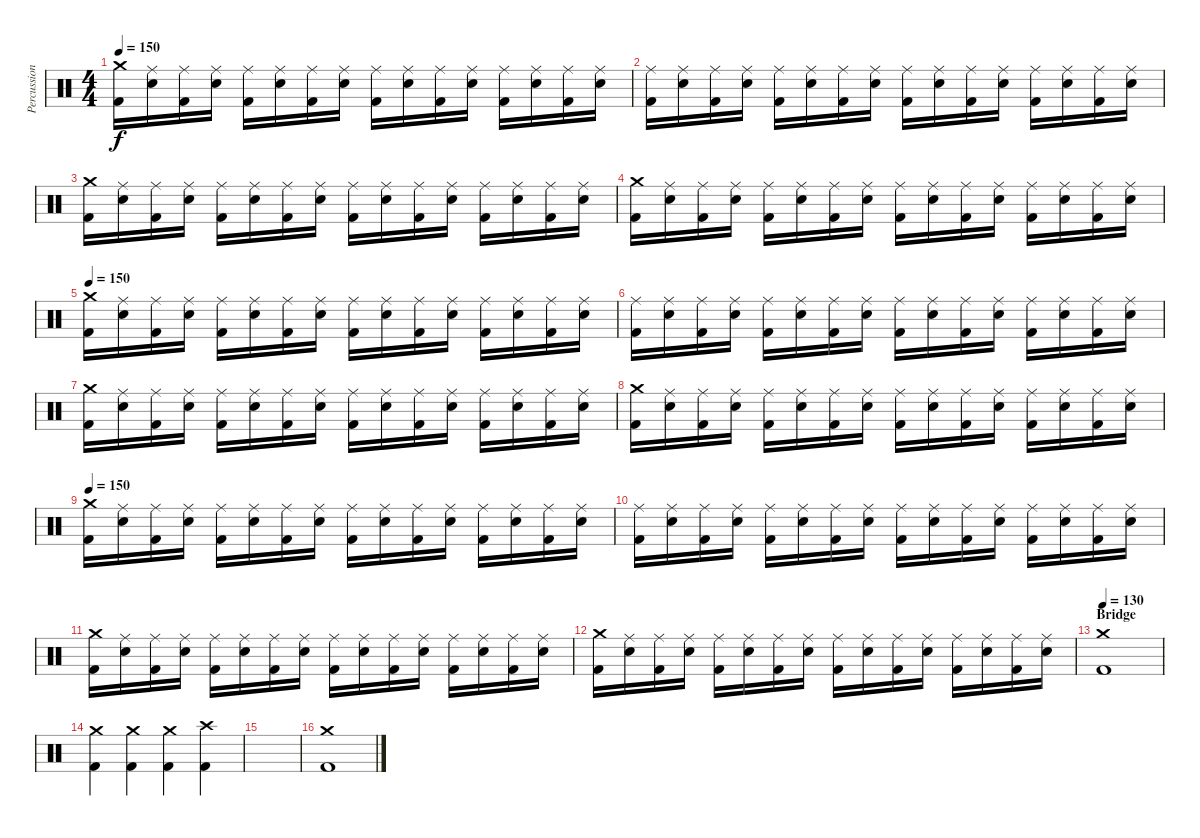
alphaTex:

\track ("Percussion" "Percussion") {instrument percussion}
\staff {score}
\articulation defaults
\ts (4 4)
\tempo 150
\clef neutral
\ks c
("Crash medium (hit)" "Kick (hit) 2").16{dy f} ("Ride (middle)" "Electric Snare (hit)").16 ("Ride (middle)" "Kick (hit) 2").16 ("Ride (middle)" "Electric Snare (hit)").16 ("Ride (middle)" "Kick (hit) 2").16 ("Ride (middle)" "Electric Snare (hit)").16 ("Ride (middle)" "Kick (hit) 2").16 ("Ride (middle)" "Electric Snare (hit)").16 ("Ride (middle)" "Kick (hit) 2").16 ("Ride (middle)" "Electric Snare (hit)").16 ("Ride (middle)" "Kick (hit) 2").16 ("Ride (middle)" "Electric Snare (hit)").16 ("Ride (middle)" "Kick (hit) 2").16 ("Ride (middle)" "Electric Snare (hit)").16 ("Ride (middle)" "Kick (hit) 2").16 ("Ride (middle)" "Electric Snare (hit)").16 |
("Ride (middle)" "Kick (hit) 2").16 ("Ride (middle)" "Electric Snare (hit)").16 ("Ride (middle)" "Kick (hit) 2").16 ("Ride (middle)" "Electric Snare (hit)").16 ("Ride (middle)" "Kick (hit) 2").16 ("Ride (middle)" "Electric Snare (hit)").16 ("Ride (middle)" "Kick (hit) 2").16 ("Ride (middle)" "Electric Snare (hit)").16 ("Ride (middle)" "Kick (hit) 2").16 ("Ride (middle)" "Electric Snare (hit)").16 ("Ride (middle)" "Kick (hit) 2").16 ("Ride (middle)" "Electric Snare (hit)").16 ("Ride (middle)" "Kick (hit) 2").16 ("Ride (middle)" "Electric Snare (hit)").16 ("Ride (middle)" "Kick (hit) 2").16 ("Ride (middle)" "Electric Snare (hit)").16 |
("Crash medium (hit)" "Kick (hit) 2").16 ("Ride (middle)" "Electric Snare (hit)").16 ("Ride (middle)" "Kick (hit) 2").16 ("Ride (middle)" "Electric Snare (hit)").16 ("Ride (middle)" "Kick (hit) 2").16 ("Ride (middle)" "Electric Snare (hit)").16 ("Ride (middle)" "Kick (hit) 2").16 ("Ride (middle)" "Electric Snare (hit)").16 ("Ride (middle)" "Kick (hit) 2").16 ("Ride (middle)" "Electric Snare (hit)").16 ("Ride (middle)" "Kick (hit) 2").16 ("Ride (middle)" "Electric Snare (hit)").16 ("Ride (middle)" "Kick (hit) 2").16 ("Ride (middle)" "Electric Snare (hit)").16 ("Ride (middle)" "Kick (hit) 2").16 ("Ride (middle)" "Electric Snare (hit)").16 |
("Crash medium (hit)" "Kick (hit) 2").16 ("Ride (middle)" "Electric Snare (hit)").16 ("Ride (middle)" "Kick (hit) 2").16 ("Ride (middle)" "Electric Snare (hit)").16 ("Ride (middle)" "Kick (hit) 2").16 ("Ride (middle)" "Electric Snare (hit)").16 ("Ride (middle)" "Kick (hit) 2").16 ("Ride (middle)" "Electric Snare (hit)").16 ("Ride (middle)" "Kick (hit) 2").16 ("Ride (middle)" "Electric Snare (hit)").16 ("Ride (middle)" "Kick (hit) 2").16 ("Ride (middle)" "Electric Snare (hit)").16 ("Ride (middle)" "Kick (hit) 2").16 ("Ride (middle)" "Electric Snare (hit)").16 ("Ride (middle)" "Kick (hit) 2").16 ("Ride (middle)" "Electric Snare (hit)").16 |
\tempo 150
("Crash medium (hit)" "Kick (hit) 2").16 ("Ride (middle)" "Electric Snare (hit)").16 ("Ride (middle)" "Kick (hit) 2").16 ("Ride (middle)" "Electric Snare (hit)").16 ("Ride (middle)" "Kick (hit) 2").16 ("Ride (middle)" "Electric Snare (hit)").16 ("Ride (middle)" "Kick (hit) 2").16 ("Ride (middle)" "Electric Snare (hit)").16 ("Ride (middle)" "Kick (hit) 2").16 ("Ride (middle)" "Electric Snare (hit)").16 ("Ride (middle)" "Kick (hit) 2").16 ("Ride (middle)" "Electric Snare (hit)").16 ("Ride (middle)" "Kick (hit) 2").16 ("Ride (middle)" "Electric Snare (hit)").16 ("Ride (middle)" "Kick (hit) 2").16 ("Ride (middle)" "Electric Snare (hit)").16 |
("Ride (middle)" "Kick (hit) 2").16 ("Ride (middle)" "Electric Snare (hit)").16 ("Ride (middle)" "Kick (hit) 2").16 ("Ride (middle)" "Electric Snare (hit)").16 ("Ride (middle)" "Kick (hit) 2").16 ("Ride (middle)" "Electric Snare (hit)").16 ("Ride (middle)" "Kick (hit) 2").16 ("Ride (middle)" "Electric Snare (hit)").16 ("Ride (middle)" "Kick (hit) 2").16 ("Ride (middle)" "Electric Snare (hit)").16 ("Ride (middle)" "Kick (hit) 2").16 ("Ride (middle)" "Electric Snare (hit)").16 ("Ride (middle)" "Kick (hit) 2").16 ("Ride (middle)" "Electric Snare (hit)").16 ("Ride (middle)" "Kick (hit) 2").16 ("Ride (middle)" "Electric Snare (hit)").16 |
("Crash medium (hit)" "Kick (hit) 2").16 ("Ride (middle)" "Electric Snare (hit)").16 ("Ride (middle)" "Kick (hit) 2").16 ("Ride (middle)" "Electric Snare (hit)").16 ("Ride (middle)" "Kick (hit) 2").16 ("Ride (middle)" "Electric Snare (hit)").16 ("Ride (middle)" "Kick (hit) 2").16 ("Ride (middle)" "Electric Snare (hit)").16 ("Ride (middle)" "Kick (hit) 2").16 ("Ride (middle)" "Electric Snare (hit)").16 ("Ride (middle)" "Kick (hit) 2").16 ("Ride (middle)" "Electric Snare (hit)").16 ("Ride (middle)" "Kick (hit) 2").16 ("Ride (middle)" "Electric Snare (hit)").16 ("Ride (middle)" "Kick (hit) 2").16 ("Ride (middle)" "Electric Snare (hit)").16 |
("Crash medium (hit)" "Kick (hit) 2").16 ("Ride (middle)" "Electric Snare (hit)").16 ("Ride (middle)" "Kick (hit) 2").16 ("Ride (middle)" "Electric Snare (hit)").16 ("Ride (middle)" "Kick (hit) 2").16 ("Ride (middle)" "Electric Snare (hit)").16 ("Ride (middle)" "Kick (hit) 2").16 ("Ride (middle)" "Electric Snare (hit)").16 ("Ride (middle)" "Kick (hit) 2").16 ("Ride (middle)" "Electric Snare (hit)").16 ("Ride (middle)" "Kick (hit) 2").16 ("Ride (middle)" "Electric Snare (hit)").16 ("Ride (middle)" "Kick (hit) 2").16 ("Ride (middle)" "Electric Snare (hit)").16 ("Ride (middle)" "Kick (hit) 2").16 ("Ride (middle)" "Electric Snare (hit)").16 |
\tempo 150
("Crash medium (hit)" "Kick (hit) 2").16 ("Ride (middle)" "Electric Snare (hit)").16 ("Ride (middle)" "Kick (hit) 2").16 ("Ride (middle)" "Electric Snare (hit)").16 ("Ride (middle)" "Kick (hit) 2").16 ("Ride (middle)" "Electric Snare (hit)").16 ("Ride (middle)" "Kick (hit) 2").16 ("Ride (middle)" "Electric Snare (hit)").16 ("Ride (middle)" "Kick (hit) 2").16 ("Ride (middle)" "Electric Snare (hit)").16 ("Ride (middle)" "Kick (hit) 2").16 ("Ride (middle)" "Electric Snare (hit)").16 ("Ride (middle)" "Kick (hit) 2").16 ("Ride (middle)" "Electric Snare (hit)").16 ("Ride (middle)" "Kick (hit) 2").16 ("Ride (middle)" "Electric Snare (hit)").16 |
("Ride (middle)" "Kick (hit) 2").16 ("Ride (middle)" "Electric Snare (hit)").16 ("Ride (middle)" "Kick (hit) 2").16 ("Ride (middle)" "Electric Snare (hit)").16 ("Ride (middle)" "Kick (hit) 2").16 ("Ride (middle)" "Electric Snare (hit)").16 ("Ride (middle)" "Kick (hit) 2").16 ("Ride (middle)" "Electric Snare (hit)").16 ("Ride (middle)" "Kick (hit) 2").16 ("Ride (middle)" "Electric Snare (hit)").16 ("Ride (middle)" "Kick (hit) 2").16 ("Ride (middle)" "Electric Snare (hit)").16 ("Ride (middle)" "Kick (hit) 2").16 ("Ride (middle)" "Electric Snare (hit)").16 ("Ride (middle)" "Kick (hit) 2").16 ("Ride (middle)" "Electric Snare (hit)").16 |
("Crash medium (hit)" "Kick (hit) 2").16 ("Ride (middle)" "Electric Snare (hit)").16 ("Ride (middle)" "Kick (hit) 2").16 ("Ride (middle)" "Electric Snare (hit)").16 ("Ride (middle)" "Kick (hit) 2").16 ("Ride (middle)" "Electric Snare (hit)").16 ("Ride (middle)" "Kick (hit) 2").16 ("Ride (middle)" "Electric Snare (hit)").16 ("Ride (middle)" "Kick (hit) 2").16 ("Ride (middle)" "Electric Snare (hit)").16 ("Ride (middle)" "Kick (hit) 2").16 ("Ride (middle)" "Electric Snare (hit)").16 ("Ride (middle)" "Kick (hit) 2").16 ("Ride (middle)" "Electric Snare (hit)").16 ("Ride (middle)" "Kick (hit) 2").16 ("Ride (middle)" "Electric Snare (hit)").16 |
("Crash medium (hit)" "Kick (hit) 2").16 ("Ride (middle)" "Electric Snare (hit)").16 ("Ride (middle)" "Kick (hit) 2").16 ("Ride (middle)" "Electric Snare (hit)").16 ("Ride (middle)" "Kick (hit) 2").16 ("Ride (middle)" "Electric Snare (hit)").16 ("Ride (middle)" "Kick (hit) 2").16 ("Ride (middle)" "Electric Snare (hit)").16 ("Ride (middle)" "Kick (hit) 2").16 ("Ride (middle)" "Electric Snare (hit)").16 ("Ride (middle)" "Kick (hit) 2").16 ("Ride (middle)" "Electric Snare (hit)").16 ("Ride (middle)" "Kick (hit) 2").16 ("Ride (middle)" "Electric Snare (hit)").16 ("Ride (middle)" "Kick (hit) 2").16 ("Ride (middle)" "Electric Snare (hit)").16 |
\section ("" "Bridge")
\tempo 130
("Crash medium (hit)" "Kick (hit) 2").1 |
("Crash medium (hit)" "Kick (hit) 2").4 ("Crash medium (hit)" "Kick (hit) 2").4 ("Crash medium (hit)" "Kick (hit) 2").4 ("Crash high (hit)" "Kick (hit) 2").4 |
|
("Crash medium (hit)" "Kick (hit) 2").1
